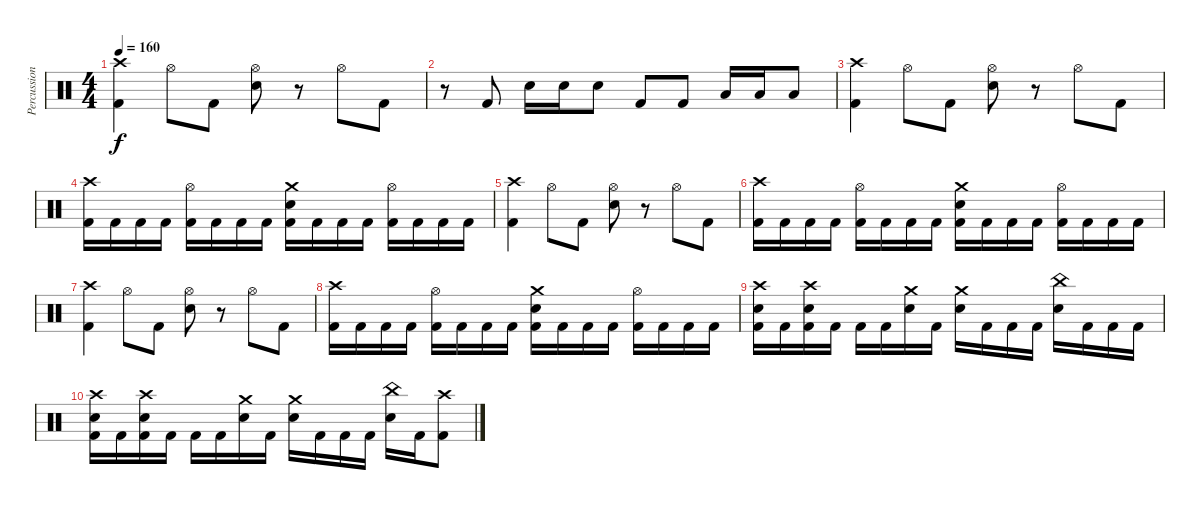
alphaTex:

\track ("Percussion" "Percussion") {instrument percussion}
\staff {score}
\articulation defaults
\ts (4 4)
\tempo 160
\clef neutral
\ks c
("Crash high (hit)" "Kick (hit) 2").4{dy f} "Hi-Hat (open)".8 "Kick (hit) 2".8 ("Hi-Hat (open)" "Electric Snare (hit)").8 r.8 "Hi-Hat (open)".8 "Kick (hit) 2".8 |
r.8 "Kick (hit) 2".8 "Electric Snare (hit)".16 "Electric Snare (hit)".16 "Electric Snare (hit)".8 "Kick (hit) 2".8 "Kick (hit) 2".8 "Low Tom (hit)".16 "Low Tom (hit)".16 "Low Tom (hit)".8 |
("Crash high (hit)" "Kick (hit) 2").4 "Hi-Hat (open)".8 "Kick (hit) 2".8 ("Hi-Hat (open)" "Electric Snare (hit)").8 r.8 "Hi-Hat (open)".8 "Kick (hit) 2".8 |
("Crash high (hit)" "Kick (hit) 2").16 "Kick (hit) 2".16 "Kick (hit) 2".16 "Kick (hit) 2".16 ("Hi-Hat (open)" "Kick (hit) 2").16 "Kick (hit) 2".16 "Kick (hit) 2".16 "Kick (hit) 2".16 ("Crash medium (hit)" "Electric Snare (hit)" "Kick (hit) 2").16 "Kick (hit) 2".16 "Kick (hit) 2".16 "Kick (hit) 2".16 ("Hi-Hat (open)" "Kick (hit) 2").16 "Kick (hit) 2".16 "Kick (hit) 2".16 "Kick (hit) 2".16 |
("Crash high (hit)" "Kick (hit) 2").4 "Hi-Hat (open)".8 "Kick (hit) 2".8 ("Hi-Hat (open)" "Electric Snare (hit)").8 r.8 "Hi-Hat (open)".8 "Kick (hit) 2".8 |
("Crash high (hit)" "Kick (hit) 2").16 "Kick (hit) 2".16 "Kick (hit) 2".16 "Kick (hit) 2".16 ("Hi-Hat (open)" "Kick (hit) 2").16 "Kick (hit) 2".16 "Kick (hit) 2".16 "Kick (hit) 2".16 ("Crash medium (hit)" "Electric Snare (hit)" "Kick (hit) 2").16 "Kick (hit) 2".16 "Kick (hit) 2".16 "Kick (hit) 2".16 ("Hi-Hat (open)" "Kick (hit) 2").16 "Kick (hit) 2".16 "Kick (hit) 2".16 "Kick (hit) 2".16 |
("Crash high (hit)" "Kick (hit) 2").4 "Hi-Hat (open)".8 "Kick (hit) 2".8 ("Hi-Hat (open)" "Electric Snare (hit)").8 r.8 "Hi-Hat (open)".8 "Kick (hit) 2".8 |
("Crash high (hit)" "Kick (hit) 2").16 "Kick (hit) 2".16 "Kick (hit) 2".16 "Kick (hit) 2".16 ("Hi-Hat (open)" "Kick (hit) 2").16 "Kick (hit) 2".16 "Kick (hit) 2".16 "Kick (hit) 2".16 ("Crash medium (hit)" "Electric Snare (hit)" "Kick (hit) 2").16 "Kick (hit) 2".16 "Kick (hit) 2".16 "Kick (hit) 2".16 ("Hi-Hat (open)" "Kick (hit) 2").16 "Kick (hit) 2".16 "Kick (hit) 2".16 "Kick (hit) 2".16 |
("Crash high (hit)" "Electric Snare (hit)" "Kick (hit) 2").16 "Kick (hit) 2".16 ("Crash high (hit)" "Electric Snare (hit)" "Kick (hit) 2").16 "Kick (hit) 2".16 "Kick (hit) 2".16 "Kick (hit) 2".16 ("Crash medium (hit)" "Electric Snare (hit)").16 "Kick (hit) 2".16 ("Crash medium (hit)" "Electric Snare (hit)").16 "Kick (hit) 2".16 "Kick (hit) 2".16 "Kick (hit) 2".16 ("China (hit)" "Electric Snare (hit)").16 "Kick (hit) 2".16 "Kick (hit) 2".16 "Kick (hit) 2".16 |
("Crash high (hit)" "Electric Snare (hit)" "Kick (hit) 2").16 "Kick (hit) 2".16 ("Crash high (hit)" "Electric Snare (hit)" "Kick (hit) 2").16 "Kick (hit) 2".16 "Kick (hit) 2".16 "Kick (hit) 2".16 ("Crash medium (hit)" "Electric Snare (hit)").16 "Kick (hit) 2".16 ("Crash medium (hit)" "Electric Snare (hit)").16 "Kick (hit) 2".16 "Kick (hit) 2".16 "Kick (hit) 2".16 ("China (hit)" "Electric Snare (hit)").16 "Kick (hit) 2".16 ("Crash high (hit)" "Kick (hit) 2").8
